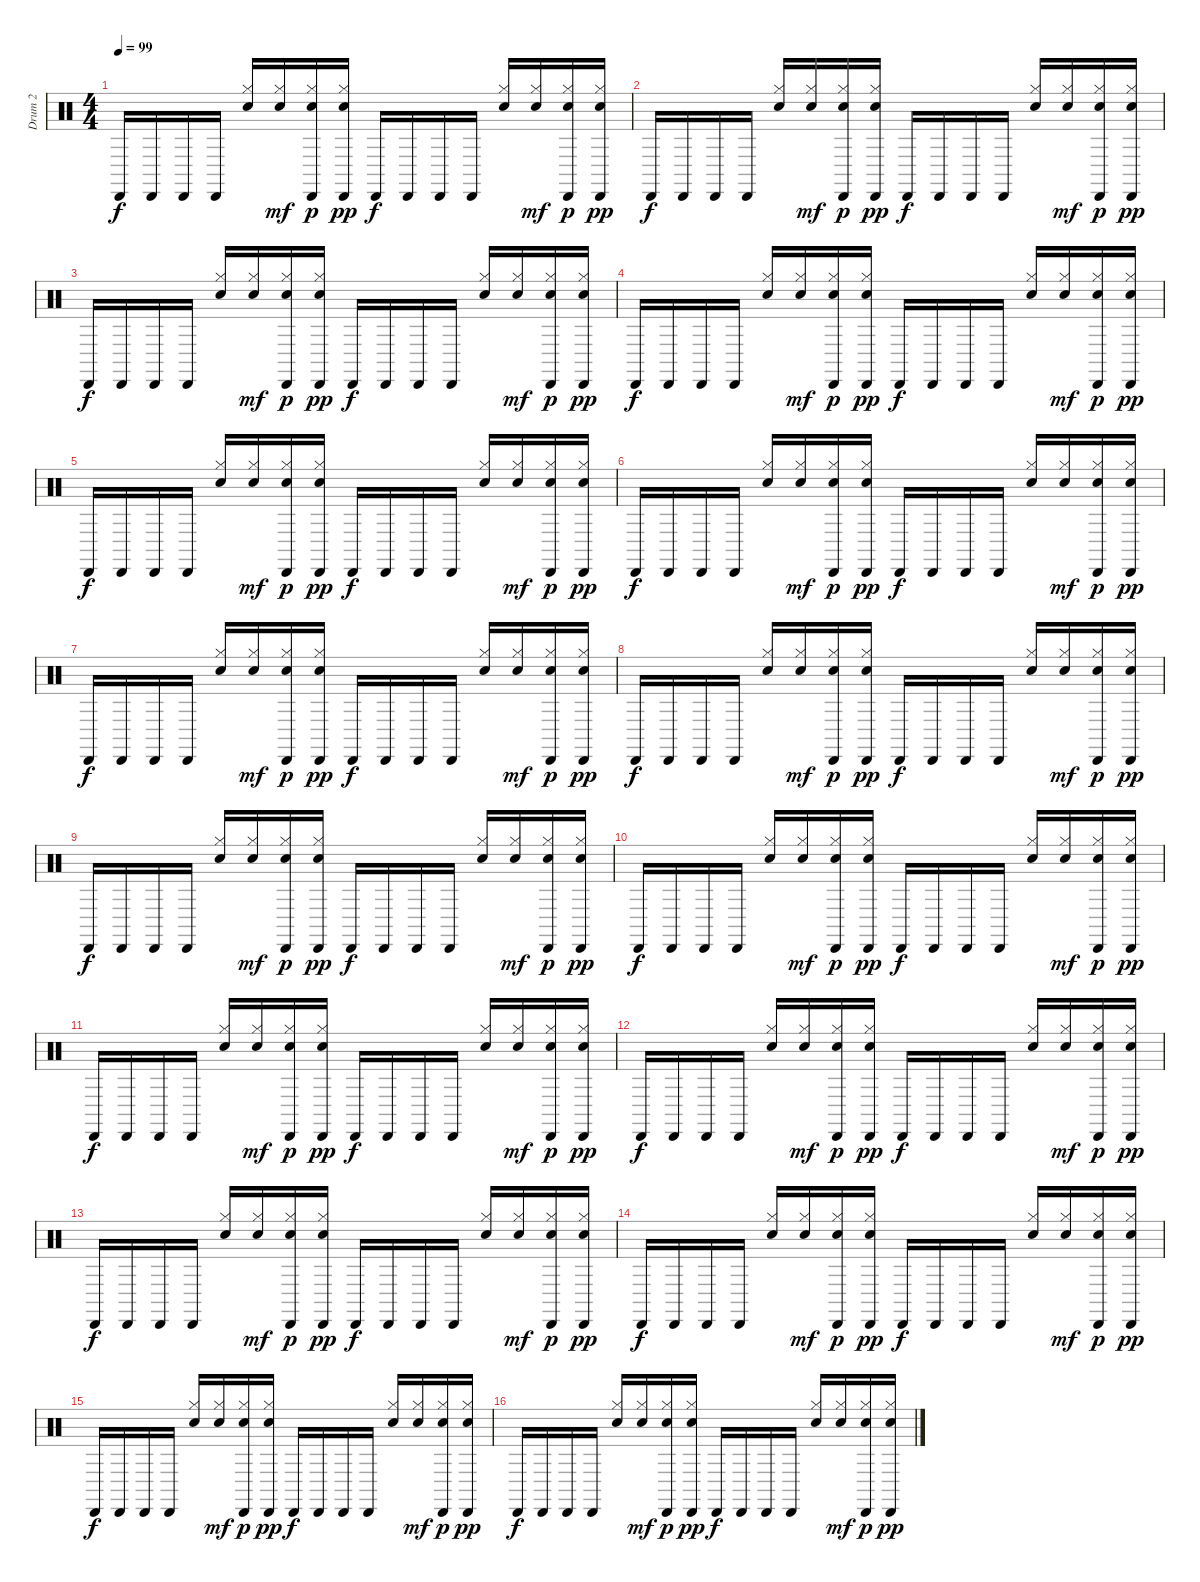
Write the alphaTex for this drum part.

\track ("Drum 2" "Drum 2") {instrument percussion}
\staff {score}
\articulation defaults
\ts (4 4)
\tempo 99
\clef neutral
\ks c "Cabasa (hit)".16{dy f} "Cabasa (hit)".16 "Cabasa (hit)".16 "Cabasa (hit)".16
("Electric Snare (hit)" "Hi-Hat (closed)").16 ("Electric Snare (hit)" "Hi-Hat (closed)").16{dy mf} ("Electric Snare (hit)" "Hi-Hat (closed)" "Cabasa (hit)").16{dy p} ("Electric Snare (hit)" "Hi-Hat (closed)" "Cabasa (hit)").16{dy pp} "Cabasa (hit)".16{dy f} "Cabasa (hit)".16 "Cabasa (hit)".16 "Cabasa (hit)".16 ("Electric Snare (hit)" "Hi-Hat (closed)").16 ("Electric Snare (hit)" "Hi-Hat (closed)").16{dy mf} ("Electric Snare (hit)" "Hi-Hat (closed)" "Cabasa (hit)").16{dy p} ("Electric Snare (hit)" "Hi-Hat (closed)" "Cabasa (hit)").16{dy pp} |
"Cabasa (hit)".16{dy f} "Cabasa (hit)".16 "Cabasa (hit)".16 "Cabasa (hit)".16 ("Electric Snare (hit)" "Hi-Hat (closed)").16 ("Electric Snare (hit)" "Hi-Hat (closed)").16{dy mf} ("Electric Snare (hit)" "Hi-Hat (closed)" "Cabasa (hit)").16{dy p} ("Electric Snare (hit)" "Hi-Hat (closed)" "Cabasa (hit)").16{dy pp} "Cabasa (hit)".16{dy f} "Cabasa (hit)".16 "Cabasa (hit)".16 "Cabasa (hit)".16 ("Electric Snare (hit)" "Hi-Hat (closed)").16 ("Electric Snare (hit)" "Hi-Hat (closed)").16{dy mf} ("Electric Snare (hit)" "Hi-Hat (closed)" "Cabasa (hit)").16{dy p} ("Electric Snare (hit)" "Hi-Hat (closed)" "Cabasa (hit)").16{dy pp} |
"Cabasa (hit)".16{dy f} "Cabasa (hit)".16 "Cabasa (hit)".16 "Cabasa (hit)".16 ("Electric Snare (hit)" "Hi-Hat (closed)").16 ("Electric Snare (hit)" "Hi-Hat (closed)").16{dy mf} ("Electric Snare (hit)" "Hi-Hat (closed)" "Cabasa (hit)").16{dy p} ("Electric Snare (hit)" "Hi-Hat (closed)" "Cabasa (hit)").16{dy pp} "Cabasa (hit)".16{dy f} "Cabasa (hit)".16 "Cabasa (hit)".16 "Cabasa (hit)".16 ("Electric Snare (hit)" "Hi-Hat (closed)").16 ("Electric Snare (hit)" "Hi-Hat (closed)").16{dy mf} ("Electric Snare (hit)" "Hi-Hat (closed)" "Cabasa (hit)").16{dy p} ("Electric Snare (hit)" "Hi-Hat (closed)" "Cabasa (hit)").16{dy pp} |
"Cabasa (hit)".16{dy f} "Cabasa (hit)".16 "Cabasa (hit)".16 "Cabasa (hit)".16 ("Electric Snare (hit)" "Hi-Hat (closed)").16 ("Electric Snare (hit)" "Hi-Hat (closed)").16{dy mf} ("Electric Snare (hit)" "Hi-Hat (closed)" "Cabasa (hit)").16{dy p} ("Electric Snare (hit)" "Hi-Hat (closed)" "Cabasa (hit)").16{dy pp} "Cabasa (hit)".16{dy f} "Cabasa (hit)".16 "Cabasa (hit)".16 "Cabasa (hit)".16 ("Electric Snare (hit)" "Hi-Hat (closed)").16 ("Electric Snare (hit)" "Hi-Hat (closed)").16{dy mf} ("Electric Snare (hit)" "Hi-Hat (closed)" "Cabasa (hit)").16{dy p} ("Electric Snare (hit)" "Hi-Hat (closed)" "Cabasa (hit)").16{dy pp} |
"Cabasa (hit)".16{dy f} "Cabasa (hit)".16 "Cabasa (hit)".16 "Cabasa (hit)".16 ("Electric Snare (hit)" "Hi-Hat (closed)").16 ("Electric Snare (hit)" "Hi-Hat (closed)").16{dy mf} ("Electric Snare (hit)" "Hi-Hat (closed)" "Cabasa (hit)").16{dy p} ("Electric Snare (hit)" "Hi-Hat (closed)" "Cabasa (hit)").16{dy pp} "Cabasa (hit)".16{dy f} "Cabasa (hit)".16 "Cabasa (hit)".16 "Cabasa (hit)".16 ("Electric Snare (hit)" "Hi-Hat (closed)").16 ("Electric Snare (hit)" "Hi-Hat (closed)").16{dy mf} ("Electric Snare (hit)" "Hi-Hat (closed)" "Cabasa (hit)").16{dy p} ("Electric Snare (hit)" "Hi-Hat (closed)" "Cabasa (hit)").16{dy pp} |
"Cabasa (hit)".16{dy f} "Cabasa (hit)".16 "Cabasa (hit)".16 "Cabasa (hit)".16 ("Electric Snare (hit)" "Hi-Hat (closed)").16 ("Electric Snare (hit)" "Hi-Hat (closed)").16{dy mf} ("Electric Snare (hit)" "Hi-Hat (closed)" "Cabasa (hit)").16{dy p} ("Electric Snare (hit)" "Hi-Hat (closed)" "Cabasa (hit)").16{dy pp} "Cabasa (hit)".16{dy f} "Cabasa (hit)".16 "Cabasa (hit)".16 "Cabasa (hit)".16 ("Electric Snare (hit)" "Hi-Hat (closed)").16 ("Electric Snare (hit)" "Hi-Hat (closed)").16{dy mf} ("Electric Snare (hit)" "Hi-Hat (closed)" "Cabasa (hit)").16{dy p} ("Electric Snare (hit)" "Hi-Hat (closed)" "Cabasa (hit)").16{dy pp} |
"Cabasa (hit)".16{dy f} "Cabasa (hit)".16 "Cabasa (hit)".16 "Cabasa (hit)".16 ("Electric Snare (hit)" "Hi-Hat (closed)").16 ("Electric Snare (hit)" "Hi-Hat (closed)").16{dy mf} ("Electric Snare (hit)" "Hi-Hat (closed)" "Cabasa (hit)").16{dy p} ("Electric Snare (hit)" "Hi-Hat (closed)" "Cabasa (hit)").16{dy pp} "Cabasa (hit)".16{dy f} "Cabasa (hit)".16 "Cabasa (hit)".16 "Cabasa (hit)".16 ("Electric Snare (hit)" "Hi-Hat (closed)").16 ("Electric Snare (hit)" "Hi-Hat (closed)").16{dy mf} ("Electric Snare (hit)" "Hi-Hat (closed)" "Cabasa (hit)").16{dy p} ("Electric Snare (hit)" "Hi-Hat (closed)" "Cabasa (hit)").16{dy pp} |
"Cabasa (hit)".16{dy f} "Cabasa (hit)".16 "Cabasa (hit)".16 "Cabasa (hit)".16 ("Electric Snare (hit)" "Hi-Hat (closed)").16 ("Electric Snare (hit)" "Hi-Hat (closed)").16{dy mf} ("Electric Snare (hit)" "Hi-Hat (closed)" "Cabasa (hit)").16{dy p} ("Electric Snare (hit)" "Hi-Hat (closed)" "Cabasa (hit)").16{dy pp} "Cabasa (hit)".16{dy f} "Cabasa (hit)".16 "Cabasa (hit)".16 "Cabasa (hit)".16 ("Electric Snare (hit)" "Hi-Hat (closed)").16 ("Electric Snare (hit)" "Hi-Hat (closed)").16{dy mf} ("Electric Snare (hit)" "Hi-Hat (closed)" "Cabasa (hit)").16{dy p} ("Electric Snare (hit)" "Hi-Hat (closed)" "Cabasa (hit)").16{dy pp} |
"Cabasa (hit)".16{dy f} "Cabasa (hit)".16 "Cabasa (hit)".16 "Cabasa (hit)".16 ("Electric Snare (hit)" "Hi-Hat (closed)").16 ("Electric Snare (hit)" "Hi-Hat (closed)").16{dy mf} ("Electric Snare (hit)" "Hi-Hat (closed)" "Cabasa (hit)").16{dy p} ("Electric Snare (hit)" "Hi-Hat (closed)" "Cabasa (hit)").16{dy pp} "Cabasa (hit)".16{dy f} "Cabasa (hit)".16 "Cabasa (hit)".16 "Cabasa (hit)".16 ("Electric Snare (hit)" "Hi-Hat (closed)").16 ("Electric Snare (hit)" "Hi-Hat (closed)").16{dy mf} ("Electric Snare (hit)" "Hi-Hat (closed)" "Cabasa (hit)").16{dy p} ("Electric Snare (hit)" "Hi-Hat (closed)" "Cabasa (hit)").16{dy pp} |
"Cabasa (hit)".16{dy f} "Cabasa (hit)".16 "Cabasa (hit)".16 "Cabasa (hit)".16 ("Electric Snare (hit)" "Hi-Hat (closed)").16 ("Electric Snare (hit)" "Hi-Hat (closed)").16{dy mf} ("Electric Snare (hit)" "Hi-Hat (closed)" "Cabasa (hit)").16{dy p} ("Electric Snare (hit)" "Hi-Hat (closed)" "Cabasa (hit)").16{dy pp} "Cabasa (hit)".16{dy f} "Cabasa (hit)".16 "Cabasa (hit)".16 "Cabasa (hit)".16 ("Electric Snare (hit)" "Hi-Hat (closed)").16 ("Electric Snare (hit)" "Hi-Hat (closed)").16{dy mf} ("Electric Snare (hit)" "Hi-Hat (closed)" "Cabasa (hit)").16{dy p} ("Electric Snare (hit)" "Hi-Hat (closed)" "Cabasa (hit)").16{dy pp} |
"Cabasa (hit)".16{dy f} "Cabasa (hit)".16 "Cabasa (hit)".16 "Cabasa (hit)".16 ("Electric Snare (hit)" "Hi-Hat (closed)").16 ("Electric Snare (hit)" "Hi-Hat (closed)").16{dy mf} ("Electric Snare (hit)" "Hi-Hat (closed)" "Cabasa (hit)").16{dy p} ("Electric Snare (hit)" "Hi-Hat (closed)" "Cabasa (hit)").16{dy pp} "Cabasa (hit)".16{dy f} "Cabasa (hit)".16 "Cabasa (hit)".16 "Cabasa (hit)".16 ("Electric Snare (hit)" "Hi-Hat (closed)").16 ("Electric Snare (hit)" "Hi-Hat (closed)").16{dy mf} ("Electric Snare (hit)" "Hi-Hat (closed)" "Cabasa (hit)").16{dy p} ("Electric Snare (hit)" "Hi-Hat (closed)" "Cabasa (hit)").16{dy pp} |
"Cabasa (hit)".16{dy f} "Cabasa (hit)".16 "Cabasa (hit)".16 "Cabasa (hit)".16 ("Electric Snare (hit)" "Hi-Hat (closed)").16 ("Electric Snare (hit)" "Hi-Hat (closed)").16{dy mf} ("Electric Snare (hit)" "Hi-Hat (closed)" "Cabasa (hit)").16{dy p} ("Electric Snare (hit)" "Hi-Hat (closed)" "Cabasa (hit)").16{dy pp} "Cabasa (hit)".16{dy f} "Cabasa (hit)".16 "Cabasa (hit)".16 "Cabasa (hit)".16 ("Electric Snare (hit)" "Hi-Hat (closed)").16 ("Electric Snare (hit)" "Hi-Hat (closed)").16{dy mf} ("Electric Snare (hit)" "Hi-Hat (closed)" "Cabasa (hit)").16{dy p} ("Electric Snare (hit)" "Hi-Hat (closed)" "Cabasa (hit)").16{dy pp} |
"Cabasa (hit)".16{dy f} "Cabasa (hit)".16 "Cabasa (hit)".16 "Cabasa (hit)".16 ("Electric Snare (hit)" "Hi-Hat (closed)").16 ("Electric Snare (hit)" "Hi-Hat (closed)").16{dy mf} ("Electric Snare (hit)" "Hi-Hat (closed)" "Cabasa (hit)").16{dy p} ("Electric Snare (hit)" "Hi-Hat (closed)" "Cabasa (hit)").16{dy pp} "Cabasa (hit)".16{dy f} "Cabasa (hit)".16 "Cabasa (hit)".16 "Cabasa (hit)".16 ("Electric Snare (hit)" "Hi-Hat (closed)").16 ("Electric Snare (hit)" "Hi-Hat (closed)").16{dy mf} ("Electric Snare (hit)" "Hi-Hat (closed)" "Cabasa (hit)").16{dy p} ("Electric Snare (hit)" "Hi-Hat (closed)" "Cabasa (hit)").16{dy pp} |
"Cabasa (hit)".16{dy f} "Cabasa (hit)".16 "Cabasa (hit)".16 "Cabasa (hit)".16 ("Electric Snare (hit)" "Hi-Hat (closed)").16 ("Electric Snare (hit)" "Hi-Hat (closed)").16{dy mf} ("Electric Snare (hit)" "Hi-Hat (closed)" "Cabasa (hit)").16{dy p} ("Electric Snare (hit)" "Hi-Hat (closed)" "Cabasa (hit)").16{dy pp} "Cabasa (hit)".16{dy f} "Cabasa (hit)".16 "Cabasa (hit)".16 "Cabasa (hit)".16 ("Electric Snare (hit)" "Hi-Hat (closed)").16 ("Electric Snare (hit)" "Hi-Hat (closed)").16{dy mf} ("Electric Snare (hit)" "Hi-Hat (closed)" "Cabasa (hit)").16{dy p} ("Electric Snare (hit)" "Hi-Hat (closed)" "Cabasa (hit)").16{dy pp} |
"Cabasa (hit)".16{dy f} "Cabasa (hit)".16 "Cabasa (hit)".16 "Cabasa (hit)".16 ("Electric Snare (hit)" "Hi-Hat (closed)").16 ("Electric Snare (hit)" "Hi-Hat (closed)").16{dy mf} ("Electric Snare (hit)" "Hi-Hat (closed)" "Cabasa (hit)").16{dy p} ("Electric Snare (hit)" "Hi-Hat (closed)" "Cabasa (hit)").16{dy pp} "Cabasa (hit)".16{dy f} "Cabasa (hit)".16 "Cabasa (hit)".16 "Cabasa (hit)".16 ("Electric Snare (hit)" "Hi-Hat (closed)").16 ("Electric Snare (hit)" "Hi-Hat (closed)").16{dy mf} ("Electric Snare (hit)" "Hi-Hat (closed)" "Cabasa (hit)").16{dy p} ("Electric Snare (hit)" "Hi-Hat (closed)" "Cabasa (hit)").16{dy pp} |
"Cabasa (hit)".16{dy f} "Cabasa (hit)".16 "Cabasa (hit)".16 "Cabasa (hit)".16 ("Electric Snare (hit)" "Hi-Hat (closed)").16 ("Electric Snare (hit)" "Hi-Hat (closed)").16{dy mf} ("Electric Snare (hit)" "Hi-Hat (closed)" "Cabasa (hit)").16{dy p} ("Electric Snare (hit)" "Hi-Hat (closed)" "Cabasa (hit)").16{dy pp} "Cabasa (hit)".16{dy f} "Cabasa (hit)".16 "Cabasa (hit)".16 "Cabasa (hit)".16 ("Electric Snare (hit)" "Hi-Hat (closed)").16 ("Electric Snare (hit)" "Hi-Hat (closed)").16{dy mf} ("Electric Snare (hit)" "Hi-Hat (closed)" "Cabasa (hit)").16{dy p} ("Electric Snare (hit)" "Hi-Hat (closed)" "Cabasa (hit)").16{dy pp}
